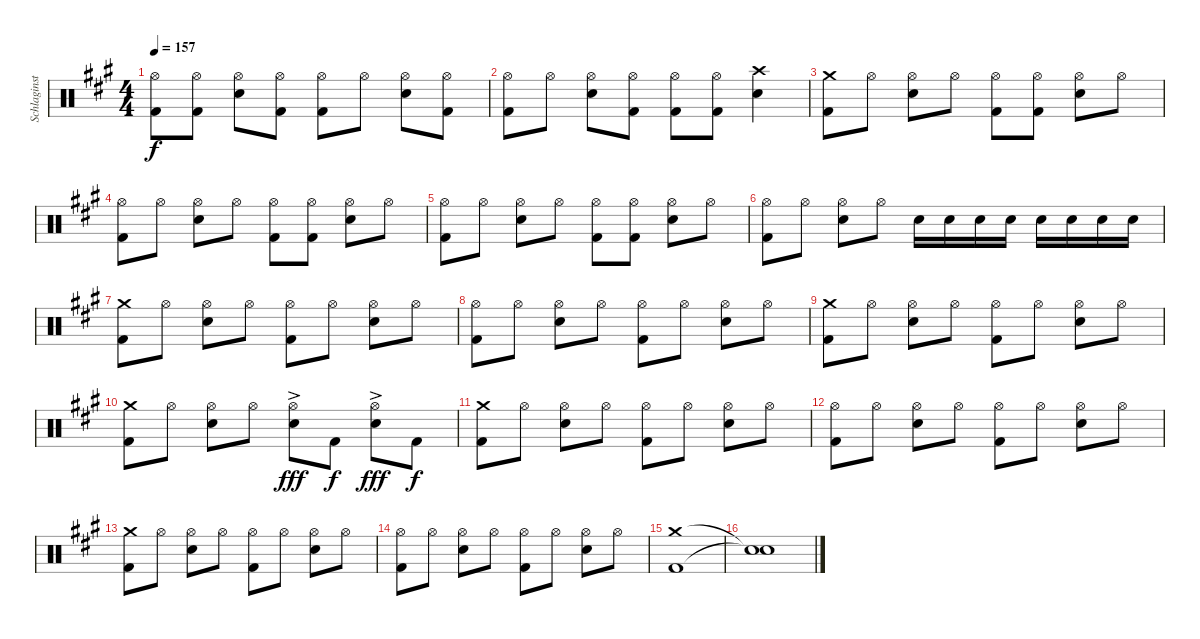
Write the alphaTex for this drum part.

\track ("Schlaginstrumente - Auswahl" "Schlaginst") {instrument percussion}
\staff {score}
\articulation defaults
\ts (4 4)
\tempo 157
\clef neutral
\ks f#minor
("Hi-Hat (open)" "Kick (hit) 2").8{dy f} ("Hi-Hat (open)" "Kick (hit) 2").8 ("Hi-Hat (open)" "Electric Snare (hit)").8 ("Hi-Hat (open)" "Kick (hit) 2").8 ("Hi-Hat (open)" "Kick (hit) 2").8 "Hi-Hat (open)".8 ("Hi-Hat (open)" "Electric Snare (hit)").8 ("Hi-Hat (open)" "Kick (hit) 2").8 |
("Hi-Hat (open)" "Kick (hit) 2").8 "Hi-Hat (open)".8 ("Hi-Hat (open)" "Electric Snare (hit)").8 ("Hi-Hat (open)" "Kick (hit) 2").8 ("Hi-Hat (open)" "Kick (hit) 2").8 ("Hi-Hat (open)" "Kick (hit) 2").8 ("Crash high (hit)" "Electric Snare (hit)").4 |
("Crash medium (hit)" "Kick (hit) 2").8 "Hi-Hat (open)".8 ("Hi-Hat (open)" "Electric Snare (hit)").8 "Hi-Hat (open)".8 ("Hi-Hat (open)" "Kick (hit) 2").8 ("Hi-Hat (open)" "Kick (hit) 2").8 ("Hi-Hat (open)" "Electric Snare (hit)").8 "Hi-Hat (open)".8 |
("Hi-Hat (open)" "Kick (hit) 2").8 "Hi-Hat (open)".8 ("Hi-Hat (open)" "Electric Snare (hit)").8 "Hi-Hat (open)".8 ("Hi-Hat (open)" "Kick (hit) 2").8 ("Hi-Hat (open)" "Kick (hit) 2").8 ("Hi-Hat (open)" "Electric Snare (hit)").8 "Hi-Hat (open)".8 |
("Hi-Hat (open)" "Kick (hit) 2").8 "Hi-Hat (open)".8 ("Hi-Hat (open)" "Electric Snare (hit)").8 "Hi-Hat (open)".8 ("Hi-Hat (open)" "Kick (hit) 2").8 ("Hi-Hat (open)" "Kick (hit) 2").8 ("Hi-Hat (open)" "Electric Snare (hit)").8 "Hi-Hat (open)".8 |
("Hi-Hat (open)" "Kick (hit) 2").8 "Hi-Hat (open)".8 ("Hi-Hat (open)" "Electric Snare (hit)").8 "Hi-Hat (open)".8 "Electric Snare (hit)".16 "Electric Snare (hit)".16 "Electric Snare (hit)".16 "Electric Snare (hit)".16 "Electric Snare (hit)".16 "Electric Snare (hit)".16 "Electric Snare (hit)".16 "Electric Snare (hit)".16 |
("Crash medium (hit)" "Kick (hit) 2").8 "Hi-Hat (open)".8 ("Hi-Hat (open)" "Electric Snare (hit)").8 "Hi-Hat (open)".8 ("Hi-Hat (open)" "Kick (hit) 2").8 "Hi-Hat (open)".8 ("Hi-Hat (open)" "Electric Snare (hit)").8 "Hi-Hat (open)".8 |
("Hi-Hat (open)" "Kick (hit) 2").8 "Hi-Hat (open)".8 ("Hi-Hat (open)" "Electric Snare (hit)").8 "Hi-Hat (open)".8 ("Hi-Hat (open)" "Kick (hit) 2").8 "Hi-Hat (open)".8 ("Hi-Hat (open)" "Electric Snare (hit)").8 "Hi-Hat (open)".8 |
("Crash medium (hit)" "Kick (hit) 2").8 "Hi-Hat (open)".8 ("Hi-Hat (open)" "Electric Snare (hit)").8 "Hi-Hat (open)".8 ("Hi-Hat (open)" "Kick (hit) 2").8 "Hi-Hat (open)".8 ("Hi-Hat (open)" "Electric Snare (hit)").8 "Hi-Hat (open)".8 |
("Crash medium (hit)" "Kick (hit) 2").8 "Hi-Hat (open)".8 ("Hi-Hat (open)" "Electric Snare (hit)").8 "Hi-Hat (open)".8 ("Hi-Hat (open)" "Electric Snare (hit)"{ac}).8{dy fff} "Kick (hit) 2".8{dy f} ("Hi-Hat (open)" "Electric Snare (hit)"{ac}).8{dy fff} "Kick (hit) 2".8{dy f} |
("Crash medium (hit)" "Kick (hit) 2").8 "Hi-Hat (open)".8 ("Hi-Hat (open)" "Electric Snare (hit)").8 "Hi-Hat (open)".8 ("Hi-Hat (open)" "Kick (hit) 2").8 "Hi-Hat (open)".8 ("Hi-Hat (open)" "Electric Snare (hit)").8 "Hi-Hat (open)".8 |
("Hi-Hat (open)" "Kick (hit) 2").8 "Hi-Hat (open)".8 ("Hi-Hat (open)" "Electric Snare (hit)").8 "Hi-Hat (open)".8 ("Hi-Hat (open)" "Kick (hit) 2").8 "Hi-Hat (open)".8 ("Hi-Hat (open)" "Electric Snare (hit)").8 "Hi-Hat (open)".8 |
("Crash medium (hit)" "Kick (hit) 2").8 "Hi-Hat (open)".8 ("Hi-Hat (open)" "Electric Snare (hit)").8 "Hi-Hat (open)".8 ("Hi-Hat (open)" "Kick (hit) 2").8 "Hi-Hat (open)".8 ("Hi-Hat (open)" "Electric Snare (hit)").8 "Hi-Hat (open)".8 |
("Hi-Hat (open)" "Kick (hit) 2").8 "Hi-Hat (open)".8 ("Hi-Hat (open)" "Electric Snare (hit)").8 "Hi-Hat (open)".8 ("Hi-Hat (open)" "Kick (hit) 2").8 "Hi-Hat (open)".8 ("Hi-Hat (open)" "Electric Snare (hit)").8 "Hi-Hat (open)".8 |
("Crash medium (hit)" "Kick (hit) 2").1 |
("Snare (hit)"{t} "Snare (hit)"{t}).1
